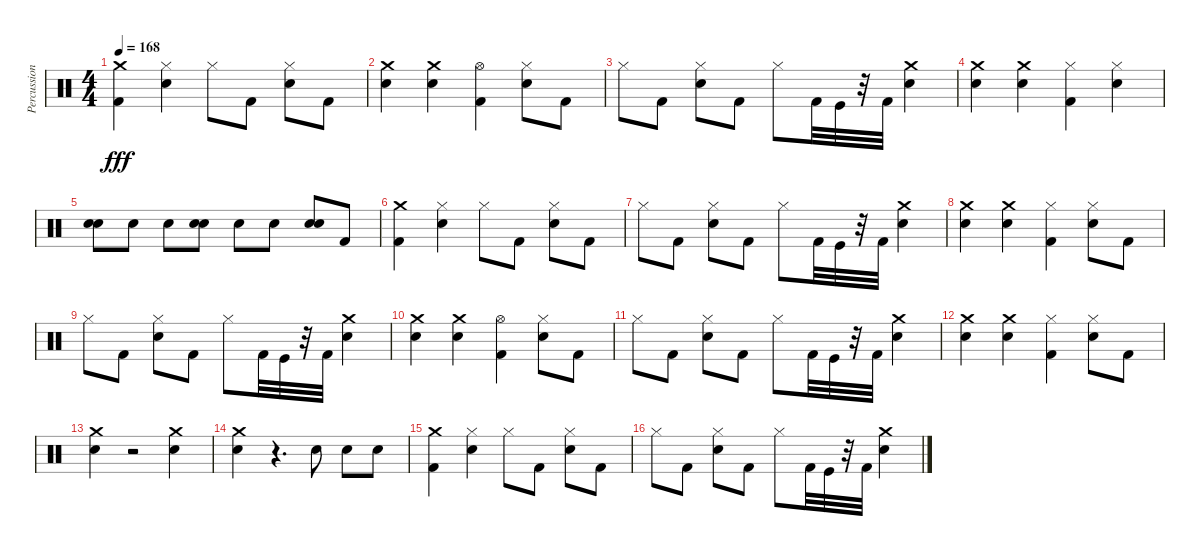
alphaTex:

\track ("Percussion" "Percussion") {instrument percussion}
\staff {score}
\articulation defaults
\ts (4 4)
\tempo 168
\clef neutral
\ks c
("Kick (hit) 2" "Crash medium (hit)").4{dy fff} ("Hi-Hat (closed)" "Snare (hit) 2").4 "Hi-Hat (closed)".8 "Kick (hit) 2".8 ("Snare (hit) 2" "Hi-Hat (closed)").8 "Kick (hit) 2".8 |
("Crash medium (hit)" "Snare (hit) 2").4 ("Crash medium (hit)" "Snare (hit) 2").4 ("Hi-Hat (open)" "Kick (hit) 2").4 ("Snare (hit) 2" "Hi-Hat (closed)").8 "Kick (hit) 2".8 |
"Hi-Hat (closed)".8 "Kick (hit) 2".8 ("Snare (hit) 2" "Hi-Hat (closed)").8 "Kick (hit) 2".8 "Hi-Hat (closed)".8 "Kick (hit) 2".32 "Kick (hit)".32 r.32 "Kick (hit) 2".32 ("Crash medium (hit)" "Snare (hit) 2").4 |
("Snare (hit) 2" "Crash medium (hit)").4 ("Snare (hit) 2" "Crash medium (hit)").4 ("Kick (hit) 2" "Hi-Hat (closed)").4 ("Hi-Hat (closed)" "Snare (hit) 2").4 |
("Snare (hit) 2" "Snare (hit) 2").8 "Snare (hit) 2".8 "Snare (hit) 2".8 ("Snare (hit) 2" "Snare (hit) 2").8 "Snare (hit) 2".8 "Snare (hit) 2".8 ("Snare (hit) 2" "Snare (hit) 2").8 "Kick (hit) 2".8 |
("Kick (hit) 2" "Crash medium (hit)").4 ("Hi-Hat (closed)" "Snare (hit) 2").4 "Hi-Hat (closed)".8 "Kick (hit) 2".8 ("Snare (hit) 2" "Hi-Hat (closed)").8 "Kick (hit) 2".8 |
"Hi-Hat (closed)".8 "Kick (hit) 2".8 ("Snare (hit) 2" "Hi-Hat (closed)").8 "Kick (hit) 2".8 "Hi-Hat (closed)".8 "Kick (hit) 2".32 "Kick (hit)".32 r.32 "Kick (hit) 2".32 ("Crash medium (hit)" "Snare (hit) 2").4 |
("Crash medium (hit)" "Snare (hit) 2").4 ("Crash medium (hit)" "Snare (hit) 2").4 ("Hi-Hat (closed)" "Kick (hit) 2").4 ("Snare (hit) 2" "Hi-Hat (closed)").8 "Kick (hit) 2".8 |
"Hi-Hat (closed)".8 "Kick (hit) 2".8 ("Snare (hit) 2" "Hi-Hat (closed)").8 "Kick (hit) 2".8 "Hi-Hat (closed)".8 "Kick (hit) 2".32 "Kick (hit)".32 r.32 "Kick (hit) 2".32 ("Crash medium (hit)" "Snare (hit) 2").4 |
("Crash medium (hit)" "Snare (hit) 2").4 ("Crash medium (hit)" "Snare (hit) 2").4 ("Hi-Hat (open)" "Kick (hit) 2").4 ("Snare (hit) 2" "Hi-Hat (closed)").8 "Kick (hit) 2".8 |
"Hi-Hat (closed)".8 "Kick (hit) 2".8 ("Snare (hit) 2" "Hi-Hat (closed)").8 "Kick (hit) 2".8 "Hi-Hat (closed)".8 "Kick (hit) 2".32 "Kick (hit)".32 r.32 "Kick (hit) 2".32 ("Crash medium (hit)" "Snare (hit) 2").4 |
("Crash medium (hit)" "Snare (hit) 2").4 ("Crash medium (hit)" "Snare (hit) 2").4 ("Hi-Hat (closed)" "Kick (hit) 2").4 ("Snare (hit) 2" "Hi-Hat (closed)").8 "Kick (hit) 2".8 |
("Snare (hit) 2" "Crash medium (hit)").4 r.2 ("Crash medium (hit)" "Snare (hit) 2").4 |
("Snare (hit) 2" "Crash medium (hit)").4 r.4{d} "Snare (hit) 2".8 "Snare (hit) 2".8 "Snare (hit) 2".8 |
("Kick (hit) 2" "Crash medium (hit)").4 ("Hi-Hat (closed)" "Snare (hit) 2").4 "Hi-Hat (closed)".8 "Kick (hit) 2".8 ("Snare (hit) 2" "Hi-Hat (closed)").8 "Kick (hit) 2".8 |
"Hi-Hat (closed)".8 "Kick (hit) 2".8 ("Snare (hit) 2" "Hi-Hat (closed)").8 "Kick (hit) 2".8 "Hi-Hat (closed)".8 "Kick (hit) 2".32 "Kick (hit)".32 r.32 "Kick (hit) 2".32 ("Crash medium (hit)" "Snare (hit) 2").4
